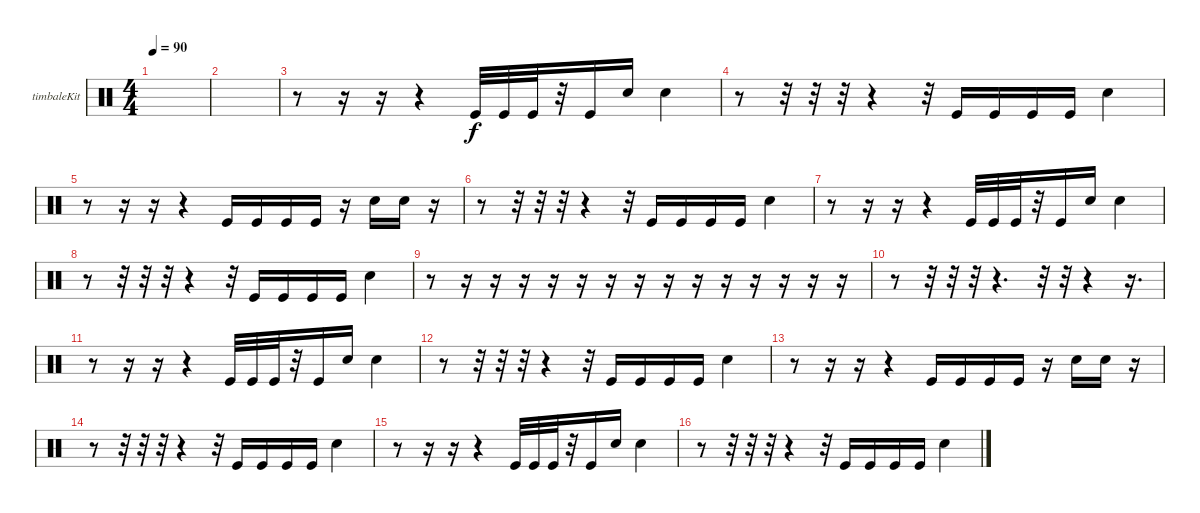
\defaultSystemsLayout 4
\bracketExtendMode groupsimilarinstruments
\firstSystemTrackNameOrientation horizontal
\otherSystemsTrackNameOrientation horizontal
\track ("Timbale" "timbaleKit") {instrument percussion}
\staff {score}
\articulation defaults
\ts (4 4)
\tempo 90
\clef neutral
\scale
0.472222
\ks c
|
\scale
0.263889 |
\scale
0.263889 r.8 r.16 r.16 r.4 "Kick (hit)".32 "Kick (hit)".32 "Kick (hit)".32 r.32 "Kick (hit)".16 "Snare (hit) 2".16 "Snare (hit) 2".4 |
\scale
0.333333 r.8 r.32 r.32 r.32 r.4 r.32 "Kick (hit)".16 "Kick (hit)".16 "Kick (hit)".16 "Kick (hit)".16 "Snare (hit) 2".4 |
\scale
0.333333 r.8 r.16 r.16 r.4 "Kick (hit)".16 "Kick (hit)".16 "Kick (hit)".16 "Kick (hit)".16 r.16 "Snare (hit) 2".16 "Snare (hit) 2".16 r.16 |
\scale
0.333333 r.8 r.32 r.32 r.32 r.4 r.32 "Kick (hit)".16 "Kick (hit)".16 "Kick (hit)".16 "Kick (hit)".16 "Snare (hit) 2".4 |
\scale
0.333333 r.8 r.16 r.16 r.4 "Kick (hit)".32 "Kick (hit)".32 "Kick (hit)".32 r.32 "Kick (hit)".16 "Snare (hit) 2".16 "Snare (hit) 2".4 |
\scale
0.333333 r.8 r.32 r.32 r.32 r.4 r.32 "Kick (hit)".16 "Kick (hit)".16 "Kick (hit)".16 "Kick (hit)".16 "Snare (hit) 2".4 |
\scale
0.333333 r.8 r.16 r.16 r.16 r.16 r.16 r.16 r.16 r.16 r.16 r.16 r.16 r.16 r.16 r.16 |
\scale
0.333333 r.8 r.32 r.32 r.32 r.4{d} r.32 r.32 r.4 r.16{d} |
\scale
0.333333 r.8 r.16 r.16 r.4 "Kick (hit)".32 "Kick (hit)".32 "Kick (hit)".32 r.32 "Kick (hit)".16 "Snare (hit) 2".16 "Snare (hit) 2".4 |
\scale
0.333333 r.8 r.32 r.32 r.32 r.4 r.32 "Kick (hit)".16 "Kick (hit)".16 "Kick (hit)".16 "Kick (hit)".16 "Snare (hit) 2".4 |
\scale
0.333333 r.8 r.16 r.16 r.4 "Kick (hit)".16 "Kick (hit)".16 "Kick (hit)".16 "Kick (hit)".16 r.16 "Snare (hit) 2".16 "Snare (hit) 2".16 r.16 |
\scale
0.333333 r.8 r.32 r.32 r.32 r.4 r.32 "Kick (hit)".16 "Kick (hit)".16 "Kick (hit)".16 "Kick (hit)".16 "Snare (hit) 2".4 |
\scale
0.333333 r.8 r.16 r.16 r.4 "Kick (hit)".32 "Kick (hit)".32 "Kick (hit)".32 r.32 "Kick (hit)".16 "Snare (hit) 2".16 "Snare (hit) 2".4 |
\scale
0.333333 r.8 r.32 r.32 r.32 r.4 r.32 "Kick (hit)".16 "Kick (hit)".16 "Kick (hit)".16 "Kick (hit)".16 "Snare (hit) 2".4
